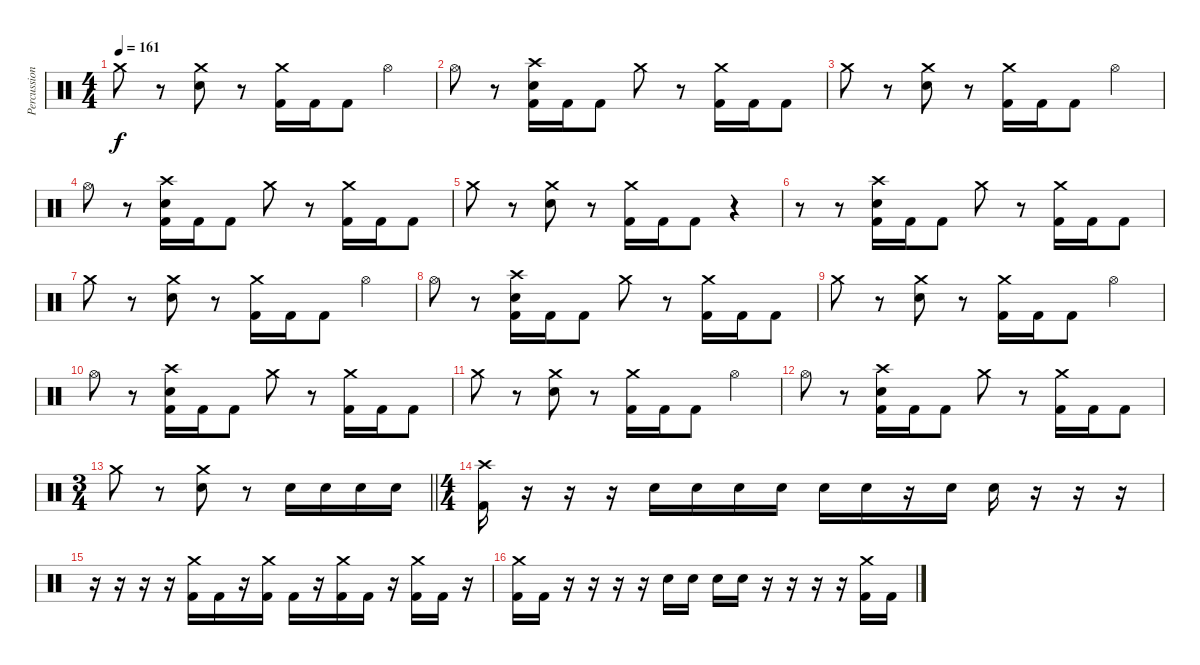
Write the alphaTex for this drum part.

\track ("Percussion" "Percussion") {instrument percussion}
\staff {score}
\articulation defaults
\ts (4 4)
\tempo 161
\clef neutral
\ks c "Crash medium (hit)".8{dy f}
r.8 ("Crash medium (hit)" "Electric Snare (hit)").8 r.8 ("Crash medium (hit)" "Kick (hit) 2").16 "Kick (hit) 2".16 "Kick (hit) 2".8 "Hi-Hat (open)".4 |
"Hi-Hat (open)".8 r.8 ("Crash high (hit)" "Electric Snare (hit)" "Kick (hit) 2").16 "Kick (hit) 2".16 "Kick (hit) 2".8 "Crash medium (hit)".8 r.8 ("Crash medium (hit)" "Kick (hit) 2").16 "Kick (hit) 2".16 "Kick (hit) 2".8 |
"Crash medium (hit)".8 r.8 ("Crash medium (hit)" "Electric Snare (hit)").8 r.8 ("Crash medium (hit)" "Kick (hit) 2").16 "Kick (hit) 2".16 "Kick (hit) 2".8 "Hi-Hat (open)".4 |
"Hi-Hat (open)".8 r.8 ("Crash high (hit)" "Electric Snare (hit)" "Kick (hit) 2").16 "Kick (hit) 2".16 "Kick (hit) 2".8 "Crash medium (hit)".8 r.8 ("Crash medium (hit)" "Kick (hit) 2").16 "Kick (hit) 2".16 "Kick (hit) 2".8 |
"Crash medium (hit)".8 r.8 ("Crash medium (hit)" "Electric Snare (hit)").8 r.8 ("Crash medium (hit)" "Kick (hit) 2").16 "Kick (hit) 2".16 "Kick (hit) 2".8 r.4 |
r.8 r.8 ("Crash high (hit)" "Electric Snare (hit)" "Kick (hit) 2").16 "Kick (hit) 2".16 "Kick (hit) 2".8 "Crash medium (hit)".8 r.8 ("Crash medium (hit)" "Kick (hit) 2").16 "Kick (hit) 2".16 "Kick (hit) 2".8 |
"Crash medium (hit)".8 r.8 ("Crash medium (hit)" "Electric Snare (hit)").8 r.8 ("Crash medium (hit)" "Kick (hit) 2").16 "Kick (hit) 2".16 "Kick (hit) 2".8 "Hi-Hat (open)".4 |
"Hi-Hat (open)".8 r.8 ("Crash high (hit)" "Electric Snare (hit)" "Kick (hit) 2").16 "Kick (hit) 2".16 "Kick (hit) 2".8 "Crash medium (hit)".8 r.8 ("Crash medium (hit)" "Kick (hit) 2").16 "Kick (hit) 2".16 "Kick (hit) 2".8 |
"Crash medium (hit)".8 r.8 ("Crash medium (hit)" "Electric Snare (hit)").8 r.8 ("Crash medium (hit)" "Kick (hit) 2").16 "Kick (hit) 2".16 "Kick (hit) 2".8 "Hi-Hat (open)".4 |
"Hi-Hat (open)".8 r.8 ("Crash high (hit)" "Electric Snare (hit)" "Kick (hit) 2").16 "Kick (hit) 2".16 "Kick (hit) 2".8 "Crash medium (hit)".8 r.8 ("Crash medium (hit)" "Kick (hit) 2").16 "Kick (hit) 2".16 "Kick (hit) 2".8 |
"Crash medium (hit)".8 r.8 ("Crash medium (hit)" "Electric Snare (hit)").8 r.8 ("Crash medium (hit)" "Kick (hit) 2").16 "Kick (hit) 2".16 "Kick (hit) 2".8 "Hi-Hat (open)".4 |
"Hi-Hat (open)".8 r.8 ("Crash high (hit)" "Electric Snare (hit)" "Kick (hit) 2").16 "Kick (hit) 2".16 "Kick (hit) 2".8 "Crash medium (hit)".8 r.8 ("Crash medium (hit)" "Kick (hit) 2").16 "Kick (hit) 2".16 "Kick (hit) 2".8 |
\ts (3 4)
\barLineRight lightlight "Crash medium (hit)".8
r.8 ("Crash medium (hit)" "Electric Snare (hit)").8 r.8 "Electric Snare (hit)".16 "Electric Snare (hit)".16 "Electric Snare (hit)".16 "Electric Snare (hit)".16 |
\ts (4 4)
\section ("" "")
("Crash high (hit)" "Kick (hit) 2").16 r.16 r.16 r.16 "Electric Snare (hit)".16 "Electric Snare (hit)".16 "Electric Snare (hit)".16 "Electric Snare (hit)".16 "Electric Snare (hit)".16 "Electric Snare (hit)".16 r.16 "Electric Snare (hit)".16 "Electric Snare (hit)".16 r.16 r.16 r.16 |
r.16 r.16 r.16 r.16 ("Crash medium (hit)" "Kick (hit) 2").16 "Kick (hit) 2".16 r.16 ("Crash medium (hit)" "Kick (hit) 2").16 "Kick (hit) 2".16 r.16 ("Crash medium (hit)" "Kick (hit) 2").16 "Kick (hit) 2".16 r.16 ("Crash medium (hit)" "Kick (hit) 2").16 "Kick (hit) 2".16 r.16 |
("Crash medium (hit)" "Kick (hit) 2").16 "Kick (hit) 2".16 r.16 r.16 r.16 r.16 "Electric Snare (hit)".16 "Electric Snare (hit)".16 "Electric Snare (hit)".16 "Electric Snare (hit)".16 r.16 r.16 r.16 r.16 ("Crash medium (hit)" "Kick (hit) 2").16 "Kick (hit) 2".16
